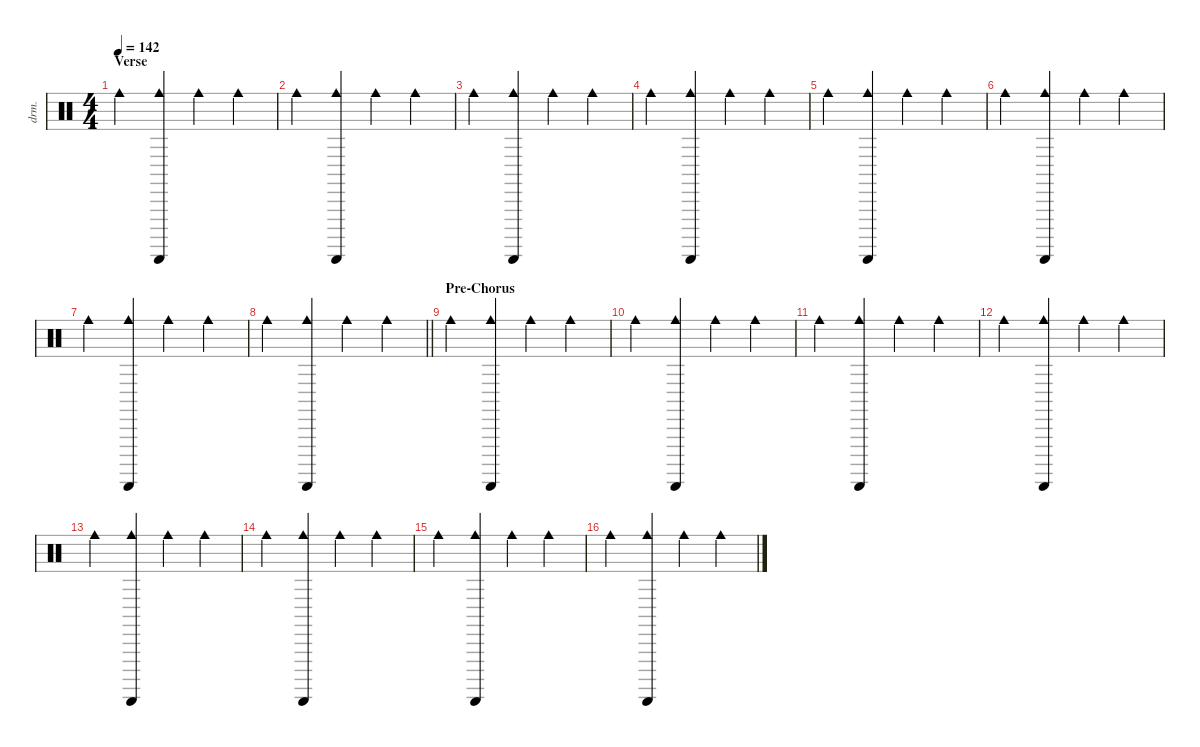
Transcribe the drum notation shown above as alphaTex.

\defaultSystemsLayout 4
\hideDynamics
\bracketExtendMode nobrackets
\otherSystemsTrackNameOrientation horizontal
\track ("Percussion" "drm.") {instrument percussion}
\staff {score}
\articulation defaults
\ts (4 4)
\section ("" "Verse")
\tempo 142
\clef neutral
\ks c "Cowbell medium (hit)".4{dy mf beam Down}
("Guiro (scrap-return)" "Cowbell medium (hit)").4{dy p beam Up} "Cowbell medium (hit)".4{dy mf beam Down} "Cowbell medium (hit)".4{beam Down} |
"Cowbell medium (hit)".4{beam Down} ("Guiro (scrap-return)" "Cowbell medium (hit)").4{dy p beam Up} "Cowbell medium (hit)".4{dy mf beam Down} "Cowbell medium (hit)".4{beam Down} |
"Cowbell medium (hit)".4{beam Down} ("Guiro (scrap-return)" "Cowbell medium (hit)").4{dy p beam Up} "Cowbell medium (hit)".4{dy mf beam Down} "Cowbell medium (hit)".4{beam Down} |
"Cowbell medium (hit)".4{beam Down} ("Guiro (scrap-return)" "Cowbell medium (hit)").4{dy p beam Up} "Cowbell medium (hit)".4{dy mf beam Down} "Cowbell medium (hit)".4{beam Down} |
"Cowbell medium (hit)".4{beam Down} ("Guiro (scrap-return)" "Cowbell medium (hit)").4{dy p beam Up} "Cowbell medium (hit)".4{dy mf beam Down} "Cowbell medium (hit)".4{beam Down} |
"Cowbell medium (hit)".4{beam Down} ("Guiro (scrap-return)" "Cowbell medium (hit)").4{dy p beam Up} "Cowbell medium (hit)".4{dy mf beam Down} "Cowbell medium (hit)".4{beam Down} |
"Cowbell medium (hit)".4{beam Down} ("Guiro (scrap-return)" "Cowbell medium (hit)").4{dy p beam Up} "Cowbell medium (hit)".4{dy mf beam Down} "Cowbell medium (hit)".4{beam Down} |
\barLineRight lightlight "Cowbell medium (hit)".4{beam Down}
("Guiro (scrap-return)" "Cowbell medium (hit)").4{dy p beam Up} "Cowbell medium (hit)".4{dy mf beam Down} "Cowbell medium (hit)".4{beam Down} |
\section ("" "Pre-Chorus")
"Cowbell medium (hit)".4{beam Down} ("Guiro (scrap-return)" "Cowbell medium (hit)").4{dy p beam Up} "Cowbell medium (hit)".4{dy mf beam Down} "Cowbell medium (hit)".4{beam Down} |
"Cowbell medium (hit)".4{beam Down} ("Guiro (scrap-return)" "Cowbell medium (hit)").4{dy p beam Up} "Cowbell medium (hit)".4{dy mf beam Down} "Cowbell medium (hit)".4{beam Down} |
"Cowbell medium (hit)".4{beam Down} ("Guiro (scrap-return)" "Cowbell medium (hit)").4{dy p beam Up} "Cowbell medium (hit)".4{dy mf beam Down} "Cowbell medium (hit)".4{beam Down} |
"Cowbell medium (hit)".4{beam Down} ("Guiro (scrap-return)" "Cowbell medium (hit)").4{dy p beam Up} "Cowbell medium (hit)".4{dy mf beam Down} "Cowbell medium (hit)".4{beam Down} |
"Cowbell medium (hit)".4{beam Down} ("Guiro (scrap-return)" "Cowbell medium (hit)").4{dy p beam Up} "Cowbell medium (hit)".4{dy mf beam Down} "Cowbell medium (hit)".4{beam Down} |
"Cowbell medium (hit)".4{beam Down} ("Guiro (scrap-return)" "Cowbell medium (hit)").4{dy p beam Up} "Cowbell medium (hit)".4{dy mf beam Down} "Cowbell medium (hit)".4{beam Down} |
"Cowbell medium (hit)".4{beam Down} ("Guiro (scrap-return)" "Cowbell medium (hit)").4{dy p beam Up} "Cowbell medium (hit)".4{dy mf beam Down} "Cowbell medium (hit)".4{beam Down} |
"Cowbell medium (hit)".4{beam Down} ("Guiro (scrap-return)" "Cowbell medium (hit)").4{dy p beam Up} "Cowbell medium (hit)".4{dy mf beam Down} "Cowbell medium (hit)".4{beam Down}
